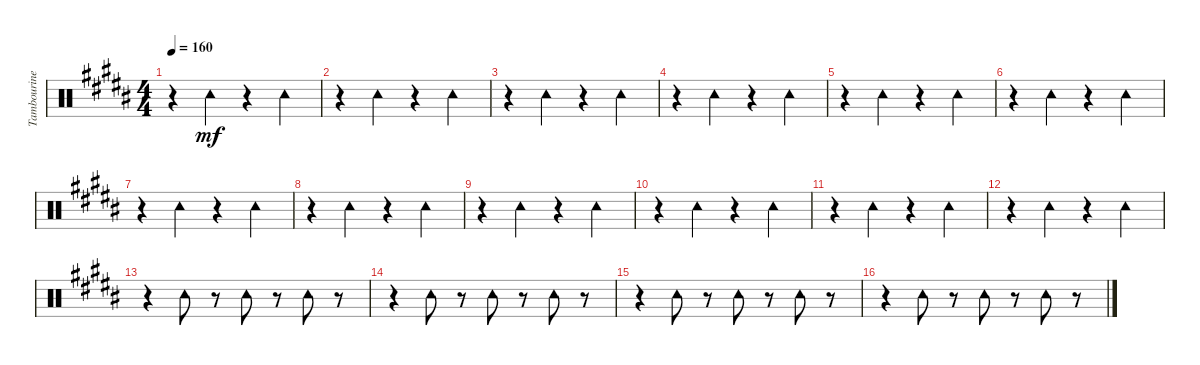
\track ("Tambourine" "Tambourine") {instrument percussion}
\staff {score}
\articulation defaults
\ts (4 4)
\tempo 160
\clef neutral
\ks b
r.4{dy mf} "Tambourine (hit)".4 r.4 "Tambourine (hit)".4 |
r.4 "Tambourine (hit)".4 r.4 "Tambourine (hit)".4 |
r.4 "Tambourine (hit)".4 r.4 "Tambourine (hit)".4 |
r.4 "Tambourine (hit)".4 r.4 "Tambourine (hit)".4 |
r.4 "Tambourine (hit)".4 r.4 "Tambourine (hit)".4 |
r.4 "Tambourine (hit)".4 r.4 "Tambourine (hit)".4 |
r.4 "Tambourine (hit)".4 r.4 "Tambourine (hit)".4 |
r.4 "Tambourine (hit)".4 r.4 "Tambourine (hit)".4 |
r.4 "Tambourine (hit)".4 r.4 "Tambourine (hit)".4 |
r.4 "Tambourine (hit)".4 r.4 "Tambourine (hit)".4 |
r.4 "Tambourine (hit)".4 r.4 "Tambourine (hit)".4 |
r.4 "Tambourine (hit)".4 r.4 "Tambourine (hit)".4 |
r.4 "Tambourine (hit)".8 r.8 "Tambourine (hit)".8 r.8 "Tambourine (hit)".8 r.8 |
r.4 "Tambourine (hit)".8 r.8 "Tambourine (hit)".8 r.8 "Tambourine (hit)".8 r.8 |
r.4 "Tambourine (hit)".8 r.8 "Tambourine (hit)".8 r.8 "Tambourine (hit)".8 r.8 |
r.4 "Tambourine (hit)".8 r.8 "Tambourine (hit)".8 r.8 "Tambourine (hit)".8 r.8
